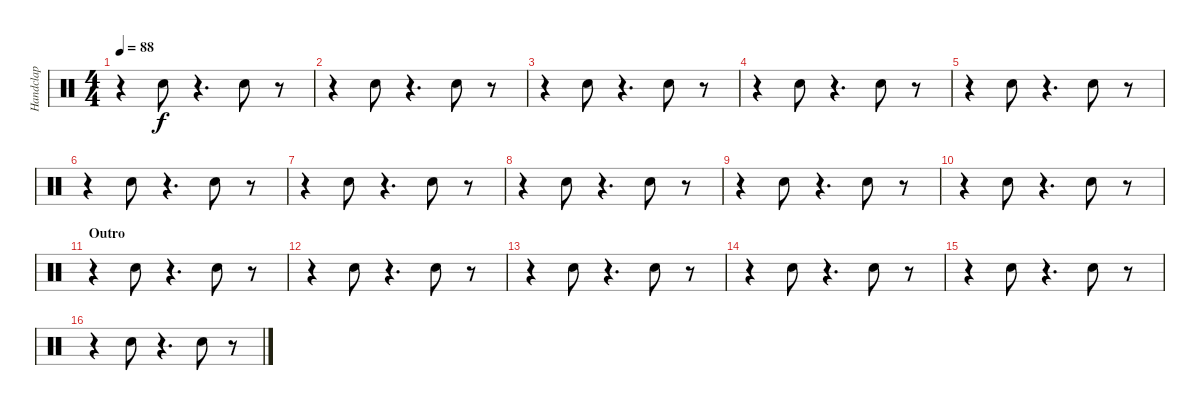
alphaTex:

\track ("Handclap" "Handclap") {instrument percussion}
\staff {score}
\articulation defaults
\ts (4 4)
\tempo 88
\clef neutral
\ks c
r.4{dy f} "Hand Clap (hit)".8 r.4{d} "Hand Clap (hit)".8 r.8 |
r.4 "Hand Clap (hit)".8 r.4{d} "Hand Clap (hit)".8 r.8 |
r.4 "Hand Clap (hit)".8 r.4{d} "Hand Clap (hit)".8 r.8 |
r.4 "Hand Clap (hit)".8 r.4{d} "Hand Clap (hit)".8 r.8 |
r.4 "Hand Clap (hit)".8 r.4{d} "Hand Clap (hit)".8 r.8 |
r.4 "Hand Clap (hit)".8 r.4{d} "Hand Clap (hit)".8 r.8 |
r.4 "Hand Clap (hit)".8 r.4{d} "Hand Clap (hit)".8 r.8 |
r.4 "Hand Clap (hit)".8 r.4{d} "Hand Clap (hit)".8 r.8 |
r.4 "Hand Clap (hit)".8 r.4{d} "Hand Clap (hit)".8 r.8 |
r.4 "Hand Clap (hit)".8 r.4{d} "Hand Clap (hit)".8 r.8 |
\section ("" "Outro")
r.4 "Hand Clap (hit)".8 r.4{d} "Hand Clap (hit)".8 r.8 |
r.4 "Hand Clap (hit)".8 r.4{d} "Hand Clap (hit)".8 r.8 |
r.4 "Hand Clap (hit)".8 r.4{d} "Hand Clap (hit)".8 r.8 |
r.4 "Hand Clap (hit)".8 r.4{d} "Hand Clap (hit)".8 r.8 |
r.4 "Hand Clap (hit)".8 r.4{d} "Hand Clap (hit)".8 r.8 |
r.4 "Hand Clap (hit)".8 r.4{d} "Hand Clap (hit)".8 r.8
